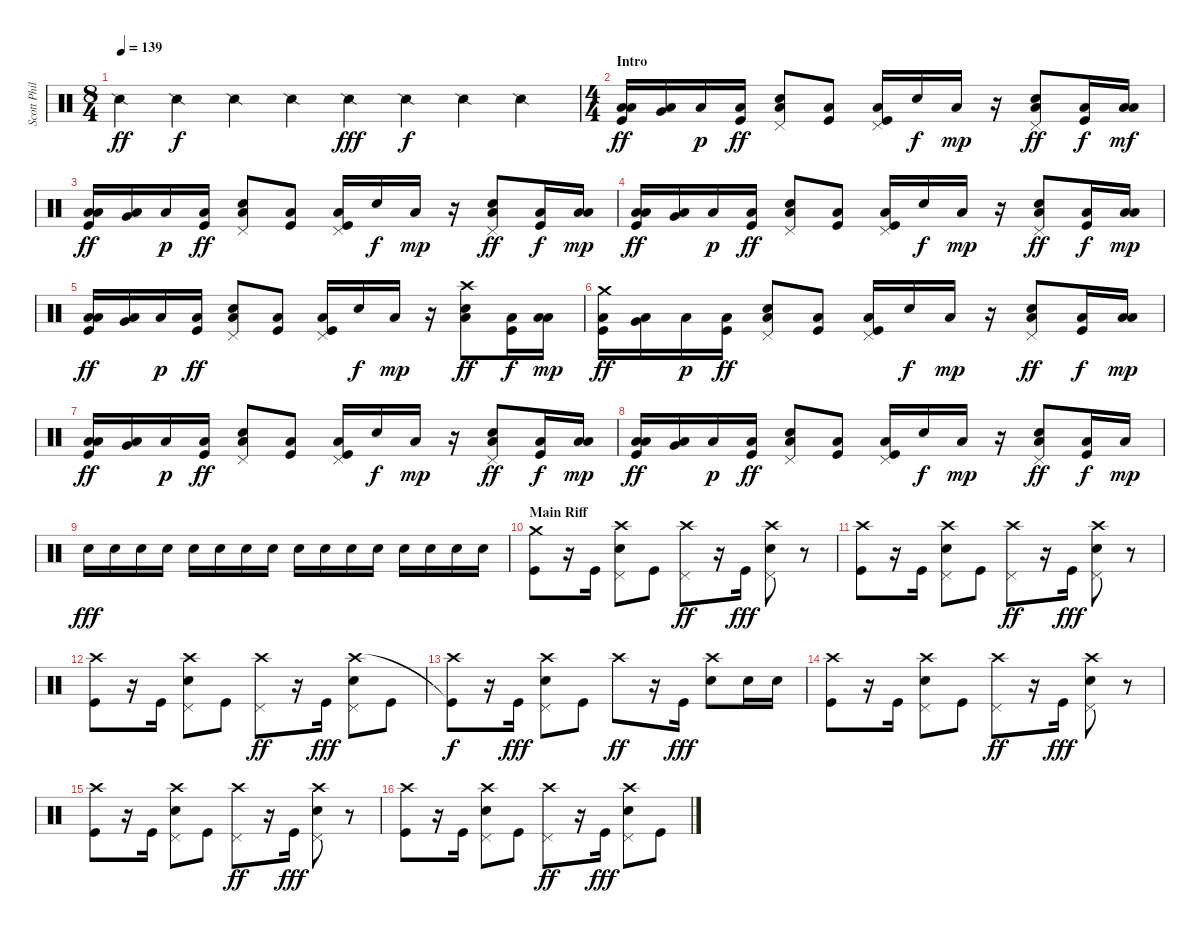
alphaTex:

\track ("Scott Phillips - Drums" "Scott Phil") {instrument percussion}
\staff {score}
\articulation defaults
\ts (8 4)
\tempo 139
\clef neutral
\ks c "Snare (side stick) 2".4{dy ff} "Snare (side stick) 2".4{dy f} "Snare (side stick) 2".4 "Snare (side stick) 2".4 "Snare (side stick) 2".4{dy fff} "Snare (side stick) 2".4{dy f} "Snare (side stick) 2".4 "Snare (side stick) 2".4
|
\ts (4 4)
\section ("" "Intro")
("Low Floor Tom (hit)" "Low Tom (hit)" "Kick (hit)").16{dy ff} ("Low Floor Tom (hit)" "Very Low Tom (hit)").16 "Low Floor Tom (hit)".16{dy p} ("Low Floor Tom (hit)" "Kick (hit)").16{dy ff} ("Pedal Hi-Hat (hit)" "Low Floor Tom (hit)" "Electric Snare (hit)").8 ("Low Floor Tom (hit)" "Kick (hit)").8 ("Pedal Hi-Hat (hit)" "Low Floor Tom (hit)" "Kick (hit)").16 "Electric Snare (hit)".16{dy f} "Low Floor Tom (hit)".16{dy mp} r.16 ("Pedal Hi-Hat (hit)" "Low Floor Tom (hit)" "Electric Snare (hit)").8{dy ff} ("Low Floor Tom (hit)" "Kick (hit)").16{dy f} ("Low Floor Tom (hit)" "Low Tom (hit)").16{dy mf} |
("Low Floor Tom (hit)" "Low Tom (hit)" "Kick (hit)").16{dy ff} ("Low Floor Tom (hit)" "Very Low Tom (hit)").16 "Low Floor Tom (hit)".16{dy p} ("Low Floor Tom (hit)" "Kick (hit)").16{dy ff} ("Pedal Hi-Hat (hit)" "Low Floor Tom (hit)" "Electric Snare (hit)").8 ("Low Floor Tom (hit)" "Kick (hit)").8 ("Pedal Hi-Hat (hit)" "Low Floor Tom (hit)" "Kick (hit)").16 "Electric Snare (hit)".16{dy f} "Low Floor Tom (hit)".16{dy mp} r.16 ("Pedal Hi-Hat (hit)" "Low Floor Tom (hit)" "Electric Snare (hit)").8{dy ff} ("Low Floor Tom (hit)" "Kick (hit)").16{dy f} ("Low Floor Tom (hit)" "Low Tom (hit)").16{dy mp} |
("Low Floor Tom (hit)" "Low Tom (hit)" "Kick (hit)").16{dy ff} ("Low Floor Tom (hit)" "Very Low Tom (hit)").16 "Low Floor Tom (hit)".16{dy p} ("Low Floor Tom (hit)" "Kick (hit)").16{dy ff} ("Pedal Hi-Hat (hit)" "Low Floor Tom (hit)" "Electric Snare (hit)").8 ("Low Floor Tom (hit)" "Kick (hit)").8 ("Pedal Hi-Hat (hit)" "Low Floor Tom (hit)" "Kick (hit)").16 "Electric Snare (hit)".16{dy f} "Low Floor Tom (hit)".16{dy mp} r.16 ("Pedal Hi-Hat (hit)" "Low Floor Tom (hit)" "Electric Snare (hit)").8{dy ff} ("Low Floor Tom (hit)" "Kick (hit)").16{dy f} ("Low Floor Tom (hit)" "Low Tom (hit)").16{dy mp} |
("Low Floor Tom (hit)" "Low Tom (hit)" "Kick (hit)").16{dy ff} ("Low Floor Tom (hit)" "Very Low Tom (hit)").16 "Low Floor Tom (hit)".16{dy p} ("Low Floor Tom (hit)" "Kick (hit)").16{dy ff} ("Pedal Hi-Hat (hit)" "Low Floor Tom (hit)" "Electric Snare (hit)").8 ("Low Floor Tom (hit)" "Kick (hit)").8 ("Pedal Hi-Hat (hit)" "Low Floor Tom (hit)" "Kick (hit)").16 "Electric Snare (hit)".16{dy f} "Low Floor Tom (hit)".16{dy mp} r.16 ("Crash high (hit)" "Low Floor Tom (hit)" "Electric Snare (hit)").8{dy ff} ("Low Floor Tom (hit)" "Kick (hit)").16{dy f} ("Low Floor Tom (hit)" "Low Tom (hit)").16{dy mp} |
("Crash medium (hit)" "Low Tom (hit)" "Kick (hit)").16{dy ff} ("Low Floor Tom (hit)" "Very Low Tom (hit)").16 "Low Floor Tom (hit)".16{dy p} ("Low Floor Tom (hit)" "Kick (hit)").16{dy ff} ("Pedal Hi-Hat (hit)" "Low Floor Tom (hit)" "Electric Snare (hit)").8 ("Low Floor Tom (hit)" "Kick (hit)").8 ("Pedal Hi-Hat (hit)" "Low Floor Tom (hit)" "Kick (hit)").16 "Electric Snare (hit)".16{dy f} "Low Floor Tom (hit)".16{dy mp} r.16 ("Pedal Hi-Hat (hit)" "Low Floor Tom (hit)" "Electric Snare (hit)").8{dy ff} ("Low Floor Tom (hit)" "Kick (hit)").16{dy f} ("Low Floor Tom (hit)" "Low Tom (hit)").16{dy mp} |
("Low Floor Tom (hit)" "Low Tom (hit)" "Kick (hit)").16{dy ff} ("Low Floor Tom (hit)" "Very Low Tom (hit)").16 "Low Floor Tom (hit)".16{dy p} ("Low Floor Tom (hit)" "Kick (hit)").16{dy ff} ("Pedal Hi-Hat (hit)" "Low Floor Tom (hit)" "Electric Snare (hit)").8 ("Low Floor Tom (hit)" "Kick (hit)").8 ("Pedal Hi-Hat (hit)" "Low Floor Tom (hit)" "Kick (hit)").16 "Electric Snare (hit)".16{dy f} "Low Floor Tom (hit)".16{dy mp} r.16 ("Pedal Hi-Hat (hit)" "Low Floor Tom (hit)" "Electric Snare (hit)").8{dy ff} ("Low Floor Tom (hit)" "Kick (hit)").16{dy f} ("Low Floor Tom (hit)" "Low Tom (hit)").16{dy mp} |
("Low Floor Tom (hit)" "Low Tom (hit)" "Kick (hit)").16{dy ff} ("Low Floor Tom (hit)" "Very Low Tom (hit)").16 "Low Floor Tom (hit)".16{dy p} ("Low Floor Tom (hit)" "Kick (hit)").16{dy ff} ("Pedal Hi-Hat (hit)" "Low Floor Tom (hit)" "Electric Snare (hit)").8 ("Low Floor Tom (hit)" "Kick (hit)").8 ("Pedal Hi-Hat (hit)" "Low Floor Tom (hit)" "Kick (hit)").16 "Electric Snare (hit)".16{dy f} "Low Floor Tom (hit)".16{dy mp} r.16 ("Pedal Hi-Hat (hit)" "Low Floor Tom (hit)" "Electric Snare (hit)").8{dy ff} ("Low Floor Tom (hit)" "Kick (hit)").16{dy f} "Low Floor Tom (hit)".16{dy mp} |
"Electric Snare (hit)".16{dy fff volume 5} "Electric Snare (hit)".16{volume 5} "Electric Snare (hit)".16{volume 5} "Electric Snare (hit)".16{volume 5} "Electric Snare (hit)".16{volume 5} "Electric Snare (hit)".16{volume 6} "Electric Snare (hit)".16{volume 7} "Electric Snare (hit)".16{volume 8} "Electric Snare (hit)".16{volume 9} "Electric Snare (hit)".16{volume 10} "Electric Snare (hit)".16{volume 11} "Electric Snare (hit)".16{volume 12} "Electric Snare (hit)".16{volume 13} "Electric Snare (hit)".16{volume 14} "Electric Snare (hit)".16{volume 15} "Electric Snare (hit)".16{volume 16} |
\section ("" "Main Riff")
("Crash medium (hit)" "Kick (hit)").8 r.16 "Kick (hit)".16 ("Pedal Hi-Hat (hit)" "Crash high (hit)" "Electric Snare (hit)").8 "Kick (hit)".8 ("Pedal Hi-Hat (hit)" "Crash high (hit)").8{dy ff} r.16 "Kick (hit)".16{dy fff} ("Pedal Hi-Hat (hit)" "Crash high (hit)" "Electric Snare (hit)").8 r.8 |
("Crash high (hit)" "Kick (hit)").8 r.16 "Kick (hit)".16 ("Pedal Hi-Hat (hit)" "Crash high (hit)" "Electric Snare (hit)").8 "Kick (hit)".8 ("Pedal Hi-Hat (hit)" "Crash high (hit)").8{dy ff} r.16 "Kick (hit)".16{dy fff} ("Pedal Hi-Hat (hit)" "Crash high (hit)" "Electric Snare (hit)").8 r.8 |
("Crash high (hit)" "Kick (hit)").8 r.16 "Kick (hit)".16 ("Pedal Hi-Hat (hit)" "Crash high (hit)" "Electric Snare (hit)").8 "Kick (hit)".8 ("Pedal Hi-Hat (hit)" "Crash high (hit)").8{dy ff} r.16 "Kick (hit)".16{dy fff} ("Pedal Hi-Hat (hit)" "Crash high (hit)" "Electric Snare (hit)").8 "Kick (hit)".8 |
("Crash high (hit)" "Kick (hit)"{t}).8{dy f} r.16 "Kick (hit)".16{dy fff} ("Pedal Hi-Hat (hit)" "Crash high (hit)" "Electric Snare (hit)").8 "Kick (hit)".8 "Crash high (hit)".8{dy ff} r.16 "Kick (hit)".16{dy fff} ("Crash high (hit)" "Electric Snare (hit)").8 "Electric Snare (hit)".16 "Electric Snare (hit)".16 |
("Crash high (hit)" "Kick (hit)").8 r.16 "Kick (hit)".16 ("Pedal Hi-Hat (hit)" "Crash high (hit)" "Electric Snare (hit)").8 "Kick (hit)".8 ("Pedal Hi-Hat (hit)" "Crash high (hit)").8{dy ff} r.16 "Kick (hit)".16{dy fff} ("Pedal Hi-Hat (hit)" "Crash high (hit)" "Electric Snare (hit)").8 r.8 |
("Crash high (hit)" "Kick (hit)").8 r.16 "Kick (hit)".16 ("Pedal Hi-Hat (hit)" "Crash high (hit)" "Electric Snare (hit)").8 "Kick (hit)".8 ("Pedal Hi-Hat (hit)" "Crash high (hit)").8{dy ff} r.16 "Kick (hit)".16{dy fff} ("Pedal Hi-Hat (hit)" "Crash high (hit)" "Electric Snare (hit)").8 r.8 |
("Crash high (hit)" "Kick (hit)").8 r.16 "Kick (hit)".16 ("Pedal Hi-Hat (hit)" "Crash high (hit)" "Electric Snare (hit)").8 "Kick (hit)".8 ("Pedal Hi-Hat (hit)" "Crash high (hit)").8{dy ff} r.16 "Kick (hit)".16{dy fff} ("Pedal Hi-Hat (hit)" "Crash high (hit)" "Electric Snare (hit)").8 "Kick (hit)".8
